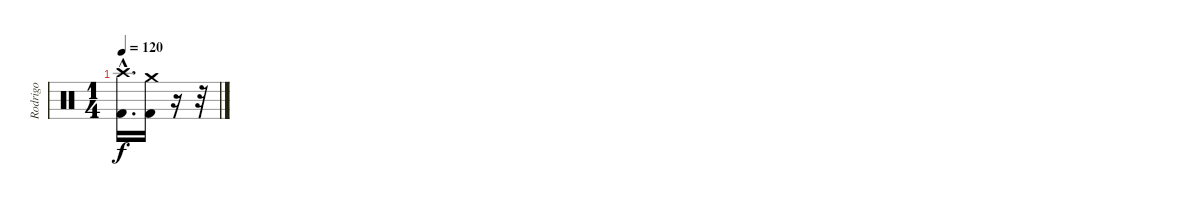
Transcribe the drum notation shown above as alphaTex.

\track ("Rodrigo" "Rodrigo") {instrument percussion}
\staff {score}
\articulation defaults
\ts (1 4)
\tempo 120
\clef neutral
\ks c
("Kick (hit) 2"{hac} "Crash high (hit)"{hac}).16{d dy f} ("Kick (hit) 2" "Crash medium (hit)").16 r.16 r.32
